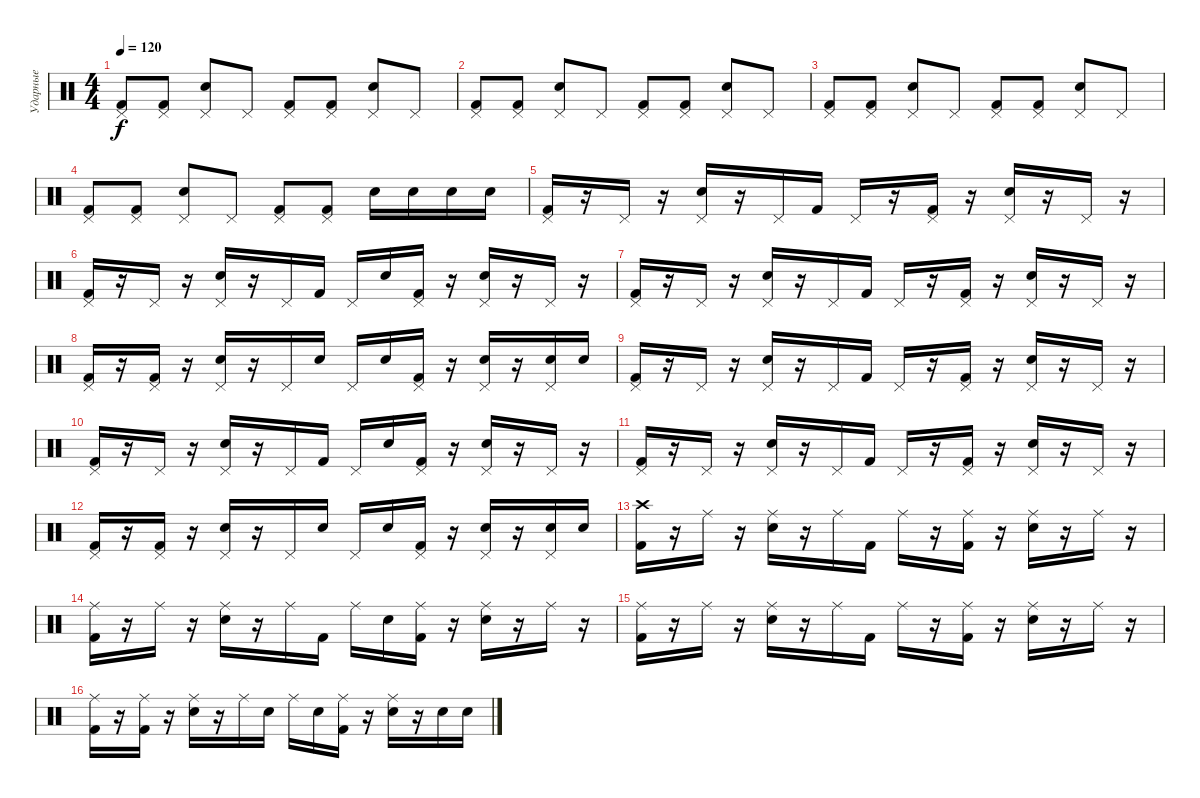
\track ("Ударные" "Ударные") {instrument percussion}
\staff {score}
\articulation defaults
\ts (4 4)
\tempo 120
\clef neutral
\ks c
("Pedal Hi-Hat (hit)" "Kick (hit) 2").8{dy f} ("Pedal Hi-Hat (hit)" "Kick (hit) 2").8 ("Pedal Hi-Hat (hit)" "Electric Snare (hit)").8 "Pedal Hi-Hat (hit)".8 ("Pedal Hi-Hat (hit)" "Kick (hit) 2").8 ("Pedal Hi-Hat (hit)" "Kick (hit) 2").8 ("Pedal Hi-Hat (hit)" "Electric Snare (hit)").8 "Pedal Hi-Hat (hit)".8 |
("Pedal Hi-Hat (hit)" "Kick (hit) 2").8 ("Pedal Hi-Hat (hit)" "Kick (hit) 2").8 ("Pedal Hi-Hat (hit)" "Electric Snare (hit)").8 "Pedal Hi-Hat (hit)".8 ("Pedal Hi-Hat (hit)" "Kick (hit) 2").8 ("Pedal Hi-Hat (hit)" "Kick (hit) 2").8 ("Pedal Hi-Hat (hit)" "Electric Snare (hit)").8 "Pedal Hi-Hat (hit)".8 |
("Pedal Hi-Hat (hit)" "Kick (hit) 2").8 ("Pedal Hi-Hat (hit)" "Kick (hit) 2").8 ("Pedal Hi-Hat (hit)" "Electric Snare (hit)").8 "Pedal Hi-Hat (hit)".8 ("Pedal Hi-Hat (hit)" "Kick (hit) 2").8 ("Pedal Hi-Hat (hit)" "Kick (hit) 2").8 ("Pedal Hi-Hat (hit)" "Electric Snare (hit)").8 "Pedal Hi-Hat (hit)".8 |
("Pedal Hi-Hat (hit)" "Kick (hit) 2").8 ("Pedal Hi-Hat (hit)" "Kick (hit) 2").8 ("Pedal Hi-Hat (hit)" "Electric Snare (hit)").8 "Pedal Hi-Hat (hit)".8 ("Pedal Hi-Hat (hit)" "Kick (hit) 2").8 ("Pedal Hi-Hat (hit)" "Kick (hit) 2").8 "Electric Snare (hit)".16 "Electric Snare (hit)".16 "Electric Snare (hit)".16 "Electric Snare (hit)".16 |
("Pedal Hi-Hat (hit)" "Kick (hit) 2").16 r.16 "Pedal Hi-Hat (hit)".16 r.16 ("Pedal Hi-Hat (hit)" "Electric Snare (hit)").16 r.16 "Pedal Hi-Hat (hit)".16 "Kick (hit) 2".16 "Pedal Hi-Hat (hit)".16 r.16 ("Pedal Hi-Hat (hit)" "Kick (hit) 2").16 r.16 ("Pedal Hi-Hat (hit)" "Electric Snare (hit)").16 r.16 "Pedal Hi-Hat (hit)".16 r.16 |
("Pedal Hi-Hat (hit)" "Kick (hit) 2").16 r.16 "Pedal Hi-Hat (hit)".16 r.16 ("Pedal Hi-Hat (hit)" "Electric Snare (hit)").16 r.16 "Pedal Hi-Hat (hit)".16 "Kick (hit) 2".16 "Pedal Hi-Hat (hit)".16 "Electric Snare (hit)".16 ("Pedal Hi-Hat (hit)" "Kick (hit) 2").16 r.16 ("Pedal Hi-Hat (hit)" "Electric Snare (hit)").16 r.16 "Pedal Hi-Hat (hit)".16 r.16 |
("Pedal Hi-Hat (hit)" "Kick (hit) 2").16 r.16 "Pedal Hi-Hat (hit)".16 r.16 ("Pedal Hi-Hat (hit)" "Electric Snare (hit)").16 r.16 "Pedal Hi-Hat (hit)".16 "Kick (hit) 2".16 "Pedal Hi-Hat (hit)".16 r.16 ("Pedal Hi-Hat (hit)" "Kick (hit) 2").16 r.16 ("Pedal Hi-Hat (hit)" "Electric Snare (hit)").16 r.16 "Pedal Hi-Hat (hit)".16 r.16 |
("Pedal Hi-Hat (hit)" "Kick (hit) 2").16 r.16 ("Pedal Hi-Hat (hit)" "Kick (hit) 2").16 r.16 ("Pedal Hi-Hat (hit)" "Electric Snare (hit)").16 r.16 "Pedal Hi-Hat (hit)".16 "Electric Snare (hit)".16 "Pedal Hi-Hat (hit)".16 "Electric Snare (hit)".16 ("Pedal Hi-Hat (hit)" "Kick (hit) 2").16 r.16 ("Pedal Hi-Hat (hit)" "Electric Snare (hit)").16 r.16 ("Pedal Hi-Hat (hit)" "Electric Snare (hit)").16 "Electric Snare (hit)".16 |
("Pedal Hi-Hat (hit)" "Kick (hit) 2").16 r.16 "Pedal Hi-Hat (hit)".16 r.16 ("Pedal Hi-Hat (hit)" "Electric Snare (hit)").16 r.16 "Pedal Hi-Hat (hit)".16 "Kick (hit) 2".16 "Pedal Hi-Hat (hit)".16 r.16 ("Pedal Hi-Hat (hit)" "Kick (hit) 2").16 r.16 ("Pedal Hi-Hat (hit)" "Electric Snare (hit)").16 r.16 "Pedal Hi-Hat (hit)".16 r.16 |
("Pedal Hi-Hat (hit)" "Kick (hit) 2").16 r.16 "Pedal Hi-Hat (hit)".16 r.16 ("Pedal Hi-Hat (hit)" "Electric Snare (hit)").16 r.16 "Pedal Hi-Hat (hit)".16 "Kick (hit) 2".16 "Pedal Hi-Hat (hit)".16 "Electric Snare (hit)".16 ("Pedal Hi-Hat (hit)" "Kick (hit) 2").16 r.16 ("Pedal Hi-Hat (hit)" "Electric Snare (hit)").16 r.16 "Pedal Hi-Hat (hit)".16 r.16 |
("Pedal Hi-Hat (hit)" "Kick (hit) 2").16 r.16 "Pedal Hi-Hat (hit)".16 r.16 ("Pedal Hi-Hat (hit)" "Electric Snare (hit)").16 r.16 "Pedal Hi-Hat (hit)".16 "Kick (hit) 2".16 "Pedal Hi-Hat (hit)".16 r.16 ("Pedal Hi-Hat (hit)" "Kick (hit) 2").16 r.16 ("Pedal Hi-Hat (hit)" "Electric Snare (hit)").16 r.16 "Pedal Hi-Hat (hit)".16 r.16 |
("Pedal Hi-Hat (hit)" "Kick (hit) 2").16 r.16 ("Pedal Hi-Hat (hit)" "Kick (hit) 2").16 r.16 ("Pedal Hi-Hat (hit)" "Electric Snare (hit)").16 r.16 "Pedal Hi-Hat (hit)".16 "Electric Snare (hit)".16 "Pedal Hi-Hat (hit)".16 "Electric Snare (hit)".16 ("Pedal Hi-Hat (hit)" "Kick (hit) 2").16 r.16 ("Pedal Hi-Hat (hit)" "Electric Snare (hit)").16 r.16 ("Pedal Hi-Hat (hit)" "Electric Snare (hit)").16 "Electric Snare (hit)".16 |
("Crash high (hit)" "Kick (hit) 2").16 r.16 "Ride (middle)".16 r.16 ("Ride (middle)" "Electric Snare (hit)").16 r.16 "Ride (middle)".16 "Kick (hit) 2".16 "Ride (middle)".16 r.16 ("Ride (middle)" "Kick (hit) 2").16 r.16 ("Ride (middle)" "Electric Snare (hit)").16 r.16 "Ride (middle)".16 r.16 |
("Ride (middle)" "Kick (hit) 2").16 r.16 "Ride (middle)".16 r.16 ("Ride (middle)" "Electric Snare (hit)").16 r.16 "Ride (middle)".16 "Kick (hit) 2".16 "Ride (middle)".16 "Electric Snare (hit)".16 ("Ride (middle)" "Kick (hit) 2").16 r.16 ("Ride (middle)" "Electric Snare (hit)").16 r.16 "Ride (middle)".16 r.16 |
("Ride (middle)" "Kick (hit) 2").16 r.16 "Ride (middle)".16 r.16 ("Ride (middle)" "Electric Snare (hit)").16 r.16 "Ride (middle)".16 "Kick (hit) 2".16 "Ride (middle)".16 r.16 ("Ride (middle)" "Kick (hit) 2").16 r.16 ("Ride (middle)" "Electric Snare (hit)").16 r.16 "Ride (middle)".16 r.16 |
("Ride (middle)" "Kick (hit) 2").16 r.16 ("Ride (middle)" "Kick (hit) 2").16 r.16 ("Ride (middle)" "Electric Snare (hit)").16 r.16 "Ride (middle)".16 "Electric Snare (hit)".16 "Ride (middle)".16 "Electric Snare (hit)".16 ("Ride (middle)" "Kick (hit) 2").16 r.16 ("Ride (middle)" "Electric Snare (hit)").16 r.16 "Electric Snare (hit)".16 "Electric Snare (hit)".16
